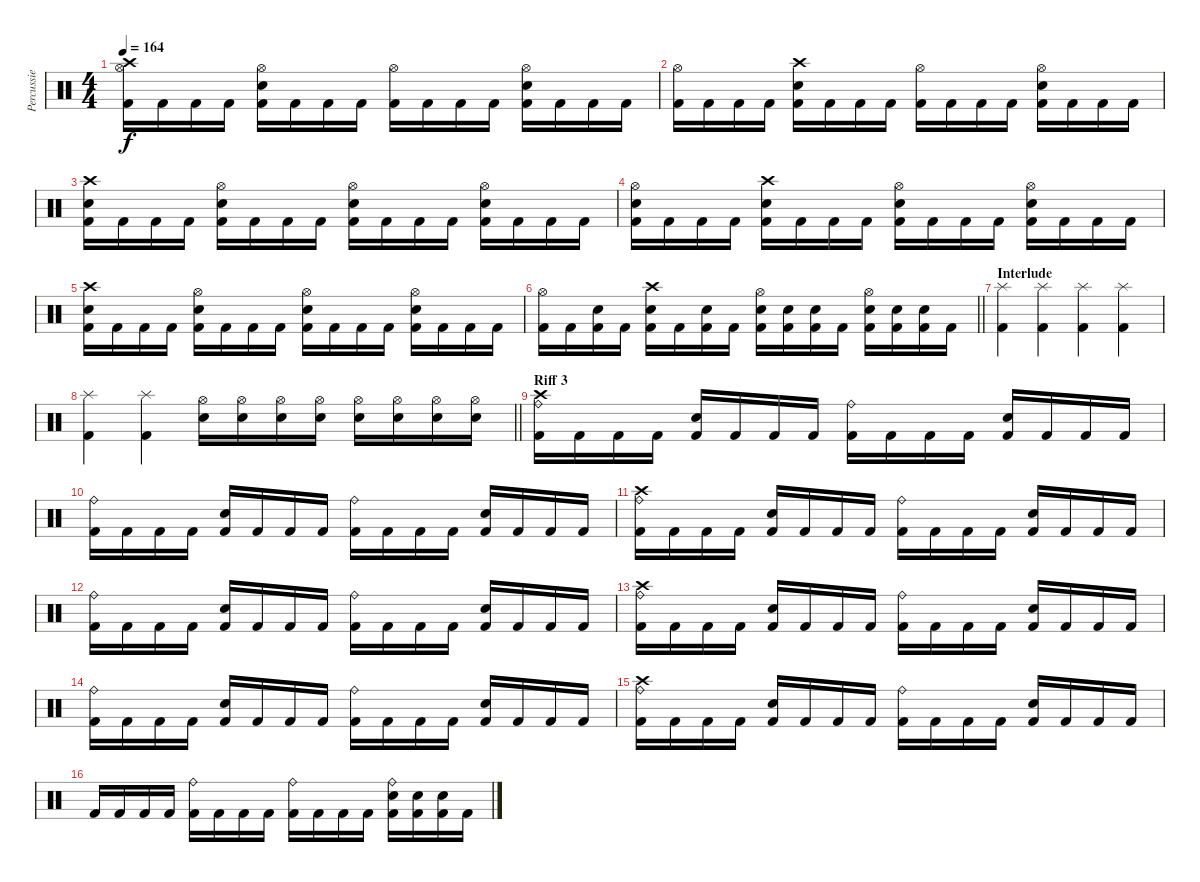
\track ("Percussie" "Percussie") {instrument percussion}
\staff {score}
\articulation defaults
\ts (4 4)
\tempo 164
\clef neutral
\ks c
("Hi-Hat (open)" "Crash high (hit)" "Kick (hit) 2").16{dy f} "Kick (hit) 2".16 "Kick (hit) 2".16 "Kick (hit) 2".16 ("Hi-Hat (open)" "Electric Snare (hit)" "Kick (hit) 2").16 "Kick (hit) 2".16 "Kick (hit) 2".16 "Kick (hit) 2".16 ("Hi-Hat (open)" "Kick (hit) 2").16 "Kick (hit) 2".16 "Kick (hit) 2".16 "Kick (hit) 2".16 ("Hi-Hat (open)" "Electric Snare (hit)" "Kick (hit) 2").16 "Kick (hit) 2".16 "Kick (hit) 2".16 "Kick (hit) 2".16 |
("Hi-Hat (open)" "Kick (hit) 2").16 "Kick (hit) 2".16 "Kick (hit) 2".16 "Kick (hit) 2".16 ("Crash high (hit)" "Electric Snare (hit)" "Kick (hit) 2").16 "Kick (hit) 2".16 "Kick (hit) 2".16 "Kick (hit) 2".16 ("Hi-Hat (open)" "Kick (hit) 2").16 "Kick (hit) 2".16 "Kick (hit) 2".16 "Kick (hit) 2".16 ("Hi-Hat (open)" "Electric Snare (hit)" "Kick (hit) 2").16 "Kick (hit) 2".16 "Kick (hit) 2".16 "Kick (hit) 2".16 |
("Crash high (hit)" "Electric Snare (hit)" "Kick (hit) 2").16 "Kick (hit) 2".16 "Kick (hit) 2".16 "Kick (hit) 2".16 ("Hi-Hat (open)" "Electric Snare (hit)" "Kick (hit) 2").16 "Kick (hit) 2".16 "Kick (hit) 2".16 "Kick (hit) 2".16 ("Hi-Hat (open)" "Electric Snare (hit)" "Kick (hit) 2").16 "Kick (hit) 2".16 "Kick (hit) 2".16 "Kick (hit) 2".16 ("Hi-Hat (open)" "Electric Snare (hit)" "Kick (hit) 2").16 "Kick (hit) 2".16 "Kick (hit) 2".16 "Kick (hit) 2".16 |
("Hi-Hat (open)" "Electric Snare (hit)" "Kick (hit) 2").16 "Kick (hit) 2".16 "Kick (hit) 2".16 "Kick (hit) 2".16 ("Crash high (hit)" "Electric Snare (hit)" "Kick (hit) 2").16 "Kick (hit) 2".16 "Kick (hit) 2".16 "Kick (hit) 2".16 ("Hi-Hat (open)" "Electric Snare (hit)" "Kick (hit) 2").16 "Kick (hit) 2".16 "Kick (hit) 2".16 "Kick (hit) 2".16 ("Hi-Hat (open)" "Electric Snare (hit)" "Kick (hit) 2").16 "Kick (hit) 2".16 "Kick (hit) 2".16 "Kick (hit) 2".16 |
("Crash high (hit)" "Electric Snare (hit)" "Kick (hit) 2").16 "Kick (hit) 2".16 "Kick (hit) 2".16 "Kick (hit) 2".16 ("Hi-Hat (open)" "Electric Snare (hit)" "Kick (hit) 2").16 "Kick (hit) 2".16 "Kick (hit) 2".16 "Kick (hit) 2".16 ("Hi-Hat (open)" "Electric Snare (hit)" "Kick (hit) 2").16 "Kick (hit) 2".16 "Kick (hit) 2".16 "Kick (hit) 2".16 ("Hi-Hat (open)" "Electric Snare (hit)" "Kick (hit) 2").16 "Kick (hit) 2".16 "Kick (hit) 2".16 "Kick (hit) 2".16 |
\barLineRight lightlight
("Hi-Hat (open)" "Kick (hit) 2").16 "Kick (hit) 2".16 ("Electric Snare (hit)" "Kick (hit) 2").16 "Kick (hit) 2".16 ("Crash high (hit)" "Electric Snare (hit)" "Kick (hit) 2").16 "Kick (hit) 2".16 ("Electric Snare (hit)" "Kick (hit) 2").16 "Kick (hit) 2".16 ("Hi-Hat (open)" "Electric Snare (hit)" "Kick (hit) 2").16 ("Electric Snare (hit)" "Kick (hit) 2").16 ("Electric Snare (hit)" "Kick (hit) 2").16 "Kick (hit) 2".16 ("Hi-Hat (open)" "Electric Snare (hit)" "Kick (hit) 2").16 ("Electric Snare (hit)" "Kick (hit) 2").16 ("Electric Snare (hit)" "Kick (hit) 2").16 "Kick (hit) 2".16 |
\section ("" "Interlude")
("Splash (hit)" "Kick (hit) 2").4 ("Splash (hit)" "Kick (hit) 2").4 ("Splash (hit)" "Kick (hit) 2").4 ("Splash (hit)" "Kick (hit) 2").4 |
\barLineRight lightlight
("Splash (hit)" "Kick (hit) 2").4 ("Splash (hit)" "Kick (hit) 2").4 ("Hi-Hat (open)" "Electric Snare (hit)").16 ("Hi-Hat (open)" "Electric Snare (hit)").16 ("Hi-Hat (open)" "Electric Snare (hit)").16 ("Hi-Hat (open)" "Electric Snare (hit)").16 ("Hi-Hat (open)" "Electric Snare (hit)").16 ("Hi-Hat (open)" "Electric Snare (hit)").16 ("Hi-Hat (open)" "Electric Snare (hit)").16 ("Hi-Hat (open)" "Electric Snare (hit)").16 |
\section ("" "Riff 3")
("Ride (bell)" "Crash high (hit)" "Kick (hit) 2").16 "Kick (hit) 2".16 "Kick (hit) 2".16 "Kick (hit) 2".16 ("Electric Snare (hit)" "Kick (hit) 2").16 "Kick (hit) 2".16 "Kick (hit) 2".16 "Kick (hit) 2".16 ("Ride (bell)" "Kick (hit) 2").16 "Kick (hit) 2".16 "Kick (hit) 2".16 "Kick (hit) 2".16 ("Electric Snare (hit)" "Kick (hit) 2").16 "Kick (hit) 2".16 "Kick (hit) 2".16 "Kick (hit) 2".16 |
("Ride (bell)" "Kick (hit) 2").16 "Kick (hit) 2".16 "Kick (hit) 2".16 "Kick (hit) 2".16 ("Electric Snare (hit)" "Kick (hit) 2").16 "Kick (hit) 2".16 "Kick (hit) 2".16 "Kick (hit) 2".16 ("Ride (bell)" "Kick (hit) 2").16 "Kick (hit) 2".16 "Kick (hit) 2".16 "Kick (hit) 2".16 ("Electric Snare (hit)" "Kick (hit) 2").16 "Kick (hit) 2".16 "Kick (hit) 2".16 "Kick (hit) 2".16 |
("Ride (bell)" "Crash high (hit)" "Kick (hit) 2").16 "Kick (hit) 2".16 "Kick (hit) 2".16 "Kick (hit) 2".16 ("Electric Snare (hit)" "Kick (hit) 2").16 "Kick (hit) 2".16 "Kick (hit) 2".16 "Kick (hit) 2".16 ("Ride (bell)" "Kick (hit) 2").16 "Kick (hit) 2".16 "Kick (hit) 2".16 "Kick (hit) 2".16 ("Electric Snare (hit)" "Kick (hit) 2").16 "Kick (hit) 2".16 "Kick (hit) 2".16 "Kick (hit) 2".16 |
("Ride (bell)" "Kick (hit) 2").16 "Kick (hit) 2".16 "Kick (hit) 2".16 "Kick (hit) 2".16 ("Electric Snare (hit)" "Kick (hit) 2").16 "Kick (hit) 2".16 "Kick (hit) 2".16 "Kick (hit) 2".16 ("Ride (bell)" "Kick (hit) 2").16 "Kick (hit) 2".16 "Kick (hit) 2".16 "Kick (hit) 2".16 ("Electric Snare (hit)" "Kick (hit) 2").16 "Kick (hit) 2".16 "Kick (hit) 2".16 "Kick (hit) 2".16 |
("Ride (bell)" "Crash high (hit)" "Kick (hit) 2").16 "Kick (hit) 2".16 "Kick (hit) 2".16 "Kick (hit) 2".16 ("Electric Snare (hit)" "Kick (hit) 2").16 "Kick (hit) 2".16 "Kick (hit) 2".16 "Kick (hit) 2".16 ("Ride (bell)" "Kick (hit) 2").16 "Kick (hit) 2".16 "Kick (hit) 2".16 "Kick (hit) 2".16 ("Electric Snare (hit)" "Kick (hit) 2").16 "Kick (hit) 2".16 "Kick (hit) 2".16 "Kick (hit) 2".16 |
("Ride (bell)" "Kick (hit) 2").16 "Kick (hit) 2".16 "Kick (hit) 2".16 "Kick (hit) 2".16 ("Electric Snare (hit)" "Kick (hit) 2").16 "Kick (hit) 2".16 "Kick (hit) 2".16 "Kick (hit) 2".16 ("Ride (bell)" "Kick (hit) 2").16 "Kick (hit) 2".16 "Kick (hit) 2".16 "Kick (hit) 2".16 ("Electric Snare (hit)" "Kick (hit) 2").16 "Kick (hit) 2".16 "Kick (hit) 2".16 "Kick (hit) 2".16 |
("Ride (bell)" "Crash high (hit)" "Kick (hit) 2").16 "Kick (hit) 2".16 "Kick (hit) 2".16 "Kick (hit) 2".16 ("Electric Snare (hit)" "Kick (hit) 2").16 "Kick (hit) 2".16 "Kick (hit) 2".16 "Kick (hit) 2".16 ("Ride (bell)" "Kick (hit) 2").16 "Kick (hit) 2".16 "Kick (hit) 2".16 "Kick (hit) 2".16 ("Electric Snare (hit)" "Kick (hit) 2").16 "Kick (hit) 2".16 "Kick (hit) 2".16 "Kick (hit) 2".16 |
"Kick (hit) 2".16 "Kick (hit) 2".16 "Kick (hit) 2".16 "Kick (hit) 2".16 ("Ride (bell)" "Kick (hit) 2").16 "Kick (hit) 2".16 "Kick (hit) 2".16 "Kick (hit) 2".16 ("Ride (bell)" "Kick (hit) 2").16 "Kick (hit) 2".16 "Kick (hit) 2".16 "Kick (hit) 2".16 ("Ride (bell)" "Electric Snare (hit)" "Kick (hit) 2").16 ("Electric Snare (hit)" "Kick (hit) 2").16 ("Electric Snare (hit)" "Kick (hit) 2").16 "Kick (hit) 2".16
